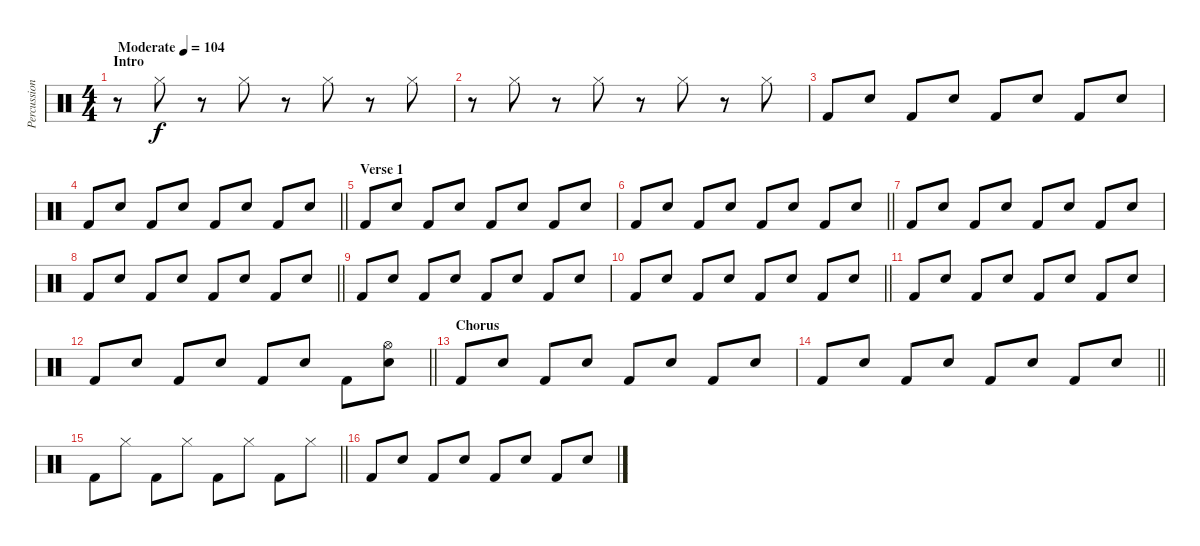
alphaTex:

\track ("Percussion" "Percussion") {instrument percussion}
\staff {score}
\articulation defaults
\ts (4 4)
\section ("" "Intro")
\tempo (104 "Moderate")
\clef neutral
\ks c
r.8{dy f} "Hi-Hat (closed)".8 r.8 "Hi-Hat (closed)".8 r.8 "Hi-Hat (closed)".8 r.8 "Hi-Hat (closed)".8 |
r.8 "Hi-Hat (closed)".8 r.8 "Hi-Hat (closed)".8 r.8 "Hi-Hat (closed)".8 r.8 "Hi-Hat (closed)".8 |
"Kick (hit) 2".8 "Electric Snare (hit)".8 "Kick (hit) 2".8 "Electric Snare (hit)".8 "Kick (hit) 2".8 "Electric Snare (hit)".8 "Kick (hit) 2".8 "Electric Snare (hit)".8 |
\barLineRight lightlight "Kick (hit) 2".8 "Electric Snare (hit)".8 "Kick (hit) 2".8 "Electric Snare (hit)".8 "Kick (hit) 2".8 "Electric Snare (hit)".8 "Kick (hit) 2".8 "Electric Snare (hit)".8
|
\section ("" "Verse 1")
"Kick (hit) 2".8 "Electric Snare (hit)".8 "Kick (hit) 2".8 "Electric Snare (hit)".8 "Kick (hit) 2".8 "Electric Snare (hit)".8 "Kick (hit) 2".8 "Electric Snare (hit)".8 |
\barLineRight lightlight "Kick (hit) 2".8 "Electric Snare (hit)".8 "Kick (hit) 2".8 "Electric Snare (hit)".8 "Kick (hit) 2".8 "Electric Snare (hit)".8 "Kick (hit) 2".8 "Electric Snare (hit)".8
|
"Kick (hit) 2".8 "Electric Snare (hit)".8 "Kick (hit) 2".8 "Electric Snare (hit)".8 "Kick (hit) 2".8 "Electric Snare (hit)".8 "Kick (hit) 2".8 "Electric Snare (hit)".8 |
\barLineRight lightlight "Kick (hit) 2".8 "Electric Snare (hit)".8 "Kick (hit) 2".8 "Electric Snare (hit)".8 "Kick (hit) 2".8 "Electric Snare (hit)".8 "Kick (hit) 2".8 "Electric Snare (hit)".8
|
"Kick (hit) 2".8 "Electric Snare (hit)".8 "Kick (hit) 2".8 "Electric Snare (hit)".8 "Kick (hit) 2".8 "Electric Snare (hit)".8 "Kick (hit) 2".8 "Electric Snare (hit)".8 |
\barLineRight lightlight "Kick (hit) 2".8 "Electric Snare (hit)".8 "Kick (hit) 2".8 "Electric Snare (hit)".8 "Kick (hit) 2".8 "Electric Snare (hit)".8 "Kick (hit) 2".8 "Electric Snare (hit)".8
|
"Kick (hit) 2".8 "Electric Snare (hit)".8 "Kick (hit) 2".8 "Electric Snare (hit)".8 "Kick (hit) 2".8 "Electric Snare (hit)".8 "Kick (hit) 2".8 "Electric Snare (hit)".8 |
\barLineRight lightlight "Kick (hit) 2".8 "Electric Snare (hit)".8 "Kick (hit) 2".8 "Electric Snare (hit)".8 "Kick (hit) 2".8 "Electric Snare (hit)".8 "Kick (hit) 2".8
("Hi-Hat (open)" "Electric Snare (hit)").8 |
\section ("" "Chorus")
"Kick (hit) 2".8 "Electric Snare (hit)".8 "Kick (hit) 2".8 "Electric Snare (hit)".8 "Kick (hit) 2".8 "Electric Snare (hit)".8 "Kick (hit) 2".8 "Electric Snare (hit)".8 |
\barLineRight lightlight "Kick (hit) 2".8 "Electric Snare (hit)".8 "Kick (hit) 2".8 "Electric Snare (hit)".8 "Kick (hit) 2".8 "Electric Snare (hit)".8 "Kick (hit) 2".8 "Electric Snare (hit)".8
|
\barLineRight lightlight "Kick (hit) 2".8 "Hi-Hat (closed)".8 "Kick (hit) 2".8 "Hi-Hat (closed)".8 "Kick (hit) 2".8 "Hi-Hat (closed)".8 "Kick (hit) 2".8 "Hi-Hat (closed)".8
|
\section ("" "")
"Kick (hit) 2".8 "Electric Snare (hit)".8 "Kick (hit) 2".8 "Electric Snare (hit)".8 "Kick (hit) 2".8 "Electric Snare (hit)".8 "Kick (hit) 2".8 "Electric Snare (hit)".8
